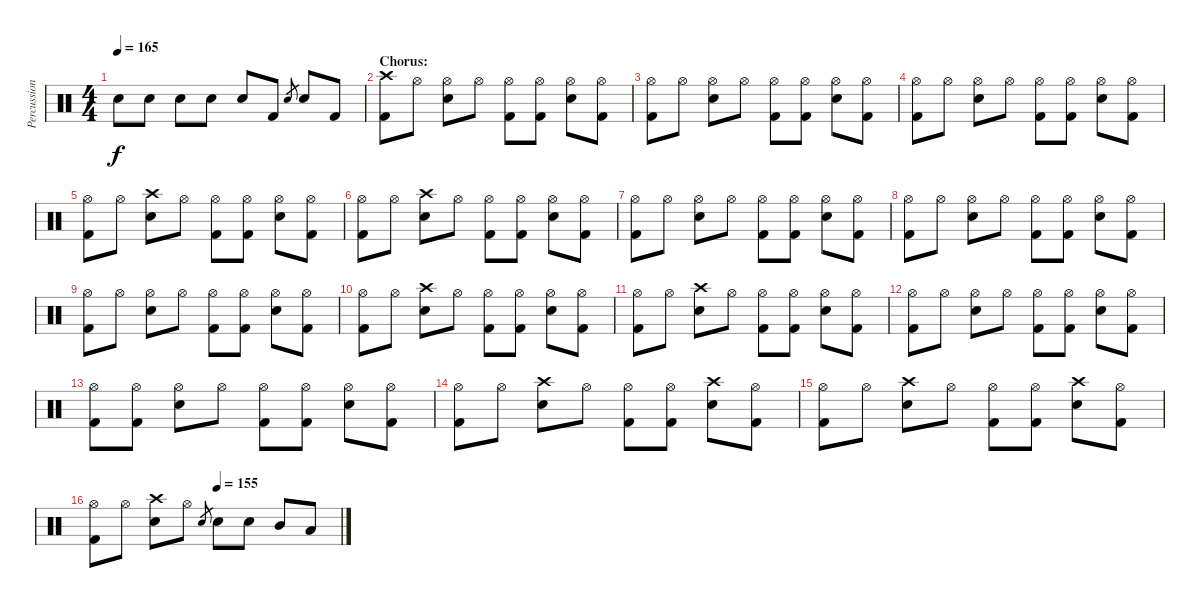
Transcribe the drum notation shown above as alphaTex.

\track ("Percussion" "Percussion") {instrument percussion}
\staff {score}
\articulation defaults
\ts (4 4)
\tempo 165
\clef neutral
\ks c "Snare (hit) 2".8{dy f} "Snare (hit) 2".8 "Snare (hit) 2".8 "Snare (hit) 2".8 "Snare (hit) 2".8 "Kick (hit) 2".8 "Snare (hit) 2".8{gr} "Snare (hit) 2".8 "Kick (hit) 2".8
|
\section ("" "Chorus:")
("Crash high (hit)" "Kick (hit) 2").8 "Hi-Hat (open)".8 ("Hi-Hat (open)" "Snare (hit) 2").8 "Hi-Hat (open)".8 ("Hi-Hat (open)" "Kick (hit) 2").8 ("Hi-Hat (open)" "Kick (hit) 2").8 ("Hi-Hat (open)" "Snare (hit) 2").8 ("Hi-Hat (open)" "Kick (hit) 2").8 |
("Hi-Hat (open)" "Kick (hit) 2").8 "Hi-Hat (open)".8 ("Hi-Hat (open)" "Snare (hit) 2").8 "Hi-Hat (open)".8 ("Hi-Hat (open)" "Kick (hit) 2").8 ("Hi-Hat (open)" "Kick (hit) 2").8 ("Hi-Hat (open)" "Snare (hit) 2").8 ("Hi-Hat (open)" "Kick (hit) 2").8 |
("Hi-Hat (open)" "Kick (hit) 2").8 "Hi-Hat (open)".8 ("Hi-Hat (open)" "Snare (hit) 2").8 "Hi-Hat (open)".8 ("Hi-Hat (open)" "Kick (hit) 2").8 ("Hi-Hat (open)" "Kick (hit) 2").8 ("Hi-Hat (open)" "Snare (hit) 2").8 ("Hi-Hat (open)" "Kick (hit) 2").8 |
("Hi-Hat (open)" "Kick (hit) 2").8 "Hi-Hat (open)".8 ("Crash high (hit)" "Snare (hit) 2").8 "Hi-Hat (open)".8 ("Hi-Hat (open)" "Kick (hit) 2").8 ("Hi-Hat (open)" "Kick (hit) 2").8 ("Hi-Hat (open)" "Snare (hit) 2").8 ("Hi-Hat (open)" "Kick (hit) 2").8 |
("Hi-Hat (open)" "Kick (hit) 2").8 "Hi-Hat (open)".8 ("Crash high (hit)" "Snare (hit) 2").8 "Hi-Hat (open)".8 ("Hi-Hat (open)" "Kick (hit) 2").8 ("Hi-Hat (open)" "Kick (hit) 2").8 ("Hi-Hat (open)" "Snare (hit) 2").8 ("Hi-Hat (open)" "Kick (hit) 2").8 |
("Hi-Hat (open)" "Kick (hit) 2").8 "Hi-Hat (open)".8 ("Hi-Hat (open)" "Snare (hit) 2").8 "Hi-Hat (open)".8 ("Hi-Hat (open)" "Kick (hit) 2").8 ("Hi-Hat (open)" "Kick (hit) 2").8 ("Hi-Hat (open)" "Snare (hit) 2").8 ("Hi-Hat (open)" "Kick (hit) 2").8 |
("Hi-Hat (open)" "Kick (hit) 2").8 "Hi-Hat (open)".8 ("Hi-Hat (open)" "Snare (hit) 2").8 "Hi-Hat (open)".8 ("Hi-Hat (open)" "Kick (hit) 2").8 ("Hi-Hat (open)" "Kick (hit) 2").8 ("Hi-Hat (open)" "Snare (hit) 2").8 ("Hi-Hat (open)" "Kick (hit) 2").8 |
("Hi-Hat (open)" "Kick (hit) 2").8 "Hi-Hat (open)".8 ("Hi-Hat (open)" "Snare (hit) 2").8 "Hi-Hat (open)".8 ("Hi-Hat (open)" "Kick (hit) 2").8 ("Hi-Hat (open)" "Kick (hit) 2").8 ("Hi-Hat (open)" "Snare (hit) 2").8 ("Hi-Hat (open)" "Kick (hit) 2").8 |
("Hi-Hat (open)" "Kick (hit) 2").8 "Hi-Hat (open)".8 ("Crash high (hit)" "Snare (hit) 2").8 "Hi-Hat (open)".8 ("Hi-Hat (open)" "Kick (hit) 2").8 ("Hi-Hat (open)" "Kick (hit) 2").8 ("Hi-Hat (open)" "Snare (hit) 2").8 ("Hi-Hat (open)" "Kick (hit) 2").8 |
("Hi-Hat (open)" "Kick (hit) 2").8 "Hi-Hat (open)".8 ("Crash high (hit)" "Snare (hit) 2").8 "Hi-Hat (open)".8 ("Hi-Hat (open)" "Kick (hit) 2").8 ("Hi-Hat (open)" "Kick (hit) 2").8 ("Hi-Hat (open)" "Snare (hit) 2").8 ("Hi-Hat (open)" "Kick (hit) 2").8 |
("Hi-Hat (open)" "Kick (hit) 2").8 "Hi-Hat (open)".8 ("Hi-Hat (open)" "Snare (hit) 2").8 "Hi-Hat (open)".8 ("Hi-Hat (open)" "Kick (hit) 2").8 ("Hi-Hat (open)" "Kick (hit) 2").8 ("Hi-Hat (open)" "Snare (hit) 2").8 ("Hi-Hat (open)" "Kick (hit) 2").8 |
("Hi-Hat (open)" "Kick (hit) 2").8 ("Hi-Hat (open)" "Kick (hit) 2").8 ("Hi-Hat (open)" "Snare (hit) 2").8 "Hi-Hat (open)".8 ("Hi-Hat (open)" "Kick (hit) 2").8 ("Hi-Hat (open)" "Kick (hit) 2").8 ("Hi-Hat (open)" "Snare (hit) 2").8 ("Hi-Hat (open)" "Kick (hit) 2").8 |
("Hi-Hat (open)" "Kick (hit) 2").8 "Hi-Hat (open)".8 ("Crash high (hit)" "Snare (hit) 2").8 "Hi-Hat (open)".8 ("Hi-Hat (open)" "Kick (hit) 2").8 ("Hi-Hat (open)" "Kick (hit) 2").8 ("Crash high (hit)" "Snare (hit) 2").8 ("Hi-Hat (open)" "Kick (hit) 2").8 |
("Hi-Hat (open)" "Kick (hit) 2").8 "Hi-Hat (open)".8 ("Crash high (hit)" "Snare (hit) 2").8 "Hi-Hat (open)".8 ("Hi-Hat (open)" "Kick (hit) 2").8 ("Hi-Hat (open)" "Kick (hit) 2").8 ("Crash high (hit)" "Snare (hit) 2").8 ("Hi-Hat (open)" "Kick (hit) 2").8 |
\tempo (155 0.5)
("Hi-Hat (open)" "Kick (hit) 2").8 "Hi-Hat (open)".8 ("Crash high (hit)" "Snare (hit) 2").8 "Hi-Hat (open)".8 "Snare (hit) 2".8{gr} "Snare (hit) 2".8 "Snare (hit) 2".8 "Mid Tom (hit)".8 "Low Tom (hit)".8
